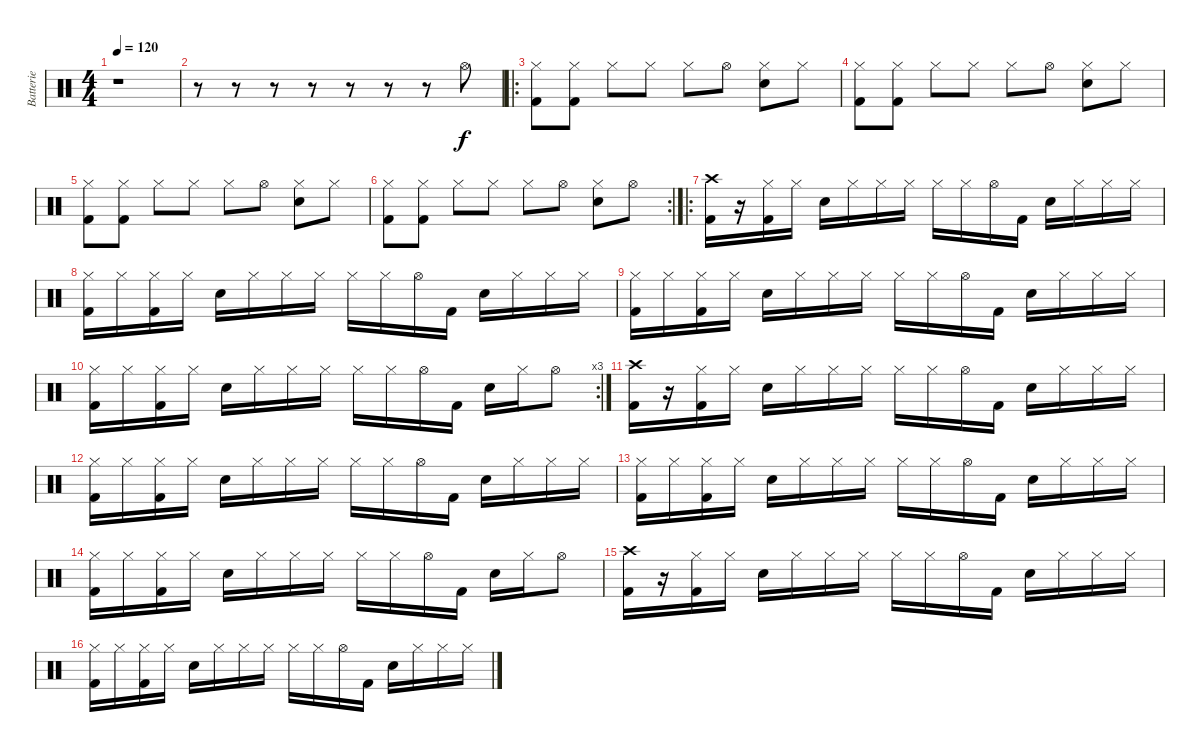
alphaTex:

\track ("Batterie" "Batterie") {instrument percussion}
\staff {score}
\articulation defaults
\ts (4 4)
\tempo 120
\clef neutral
\ks c
r.1{dy f} |
r.8 r.8 r.8 r.8 r.8 r.8 r.8 "Hi-Hat (open)".8 |
\ro
("Hi-Hat (closed)" "Kick (hit) 2").8 ("Hi-Hat (closed)" "Kick (hit) 2").8 "Hi-Hat (closed)".8 "Hi-Hat (closed)".8 "Hi-Hat (closed)".8 "Hi-Hat (open)".8 ("Hi-Hat (closed)" "Snare (hit) 2").8 "Hi-Hat (closed)".8 |
("Hi-Hat (closed)" "Kick (hit) 2").8 ("Hi-Hat (closed)" "Kick (hit) 2").8 "Hi-Hat (closed)".8 "Hi-Hat (closed)".8 "Hi-Hat (closed)".8 "Hi-Hat (open)".8 ("Hi-Hat (closed)" "Snare (hit) 2").8 "Hi-Hat (closed)".8 |
("Hi-Hat (closed)" "Kick (hit) 2").8 ("Hi-Hat (closed)" "Kick (hit) 2").8 "Hi-Hat (closed)".8 "Hi-Hat (closed)".8 "Hi-Hat (closed)".8 "Hi-Hat (open)".8 ("Hi-Hat (closed)" "Snare (hit) 2").8 "Hi-Hat (closed)".8 |
\rc 2
("Hi-Hat (closed)" "Kick (hit) 2").8 ("Hi-Hat (closed)" "Kick (hit) 2").8 "Hi-Hat (closed)".8 "Hi-Hat (closed)".8 "Hi-Hat (closed)".8 "Hi-Hat (open)".8 ("Hi-Hat (closed)" "Snare (hit) 2").8 "Hi-Hat (open)".8 |
\ro
("Crash high (hit)" "Kick (hit) 2").16 r.16 ("Hi-Hat (closed)" "Kick (hit) 2").16 "Hi-Hat (closed)".16 "Snare (hit) 2".16 "Hi-Hat (closed)".16 "Hi-Hat (closed)".16 "Hi-Hat (closed)".16 "Hi-Hat (closed)".16 "Hi-Hat (closed)".16 "Hi-Hat (open)".16 "Kick (hit) 2".16 "Snare (hit) 2".16 "Hi-Hat (closed)".16 "Hi-Hat (closed)".16 "Hi-Hat (closed)".16 |
("Hi-Hat (closed)" "Kick (hit) 2").16 "Hi-Hat (closed)".16 ("Hi-Hat (closed)" "Kick (hit) 2").16 "Hi-Hat (closed)".16 "Snare (hit) 2".16 "Hi-Hat (closed)".16 "Hi-Hat (closed)".16 "Hi-Hat (closed)".16 "Hi-Hat (closed)".16 "Hi-Hat (closed)".16 "Hi-Hat (open)".16 "Kick (hit) 2".16 "Snare (hit) 2".16 "Hi-Hat (closed)".16 "Hi-Hat (closed)".16 "Hi-Hat (closed)".16 |
("Hi-Hat (closed)" "Kick (hit) 2").16 "Hi-Hat (closed)".16 ("Hi-Hat (closed)" "Kick (hit) 2").16 "Hi-Hat (closed)".16 "Snare (hit) 2".16 "Hi-Hat (closed)".16 "Hi-Hat (closed)".16 "Hi-Hat (closed)".16 "Hi-Hat (closed)".16 "Hi-Hat (closed)".16 "Hi-Hat (open)".16 "Kick (hit) 2".16 "Snare (hit) 2".16 "Hi-Hat (closed)".16 "Hi-Hat (closed)".16 "Hi-Hat (closed)".16 |
\rc 3
("Hi-Hat (closed)" "Kick (hit) 2").16 "Hi-Hat (closed)".16 ("Hi-Hat (closed)" "Kick (hit) 2").16 "Hi-Hat (closed)".16 "Snare (hit) 2".16 "Hi-Hat (closed)".16 "Hi-Hat (closed)".16 "Hi-Hat (closed)".16 "Hi-Hat (closed)".16 "Hi-Hat (closed)".16 "Hi-Hat (open)".16 "Kick (hit) 2".16 "Snare (hit) 2".16 "Hi-Hat (closed)".16 "Hi-Hat (open)".8 |
("Crash high (hit)" "Kick (hit) 2").16 r.16 ("Hi-Hat (closed)" "Kick (hit) 2").16 "Hi-Hat (closed)".16 "Snare (hit) 2".16 "Hi-Hat (closed)".16 "Hi-Hat (closed)".16 "Hi-Hat (closed)".16 "Hi-Hat (closed)".16 "Hi-Hat (closed)".16 "Hi-Hat (open)".16 "Kick (hit) 2".16 "Snare (hit) 2".16 "Hi-Hat (closed)".16 "Hi-Hat (closed)".16 "Hi-Hat (closed)".16 |
("Hi-Hat (closed)" "Kick (hit) 2").16 "Hi-Hat (closed)".16 ("Hi-Hat (closed)" "Kick (hit) 2").16 "Hi-Hat (closed)".16 "Snare (hit) 2".16 "Hi-Hat (closed)".16 "Hi-Hat (closed)".16 "Hi-Hat (closed)".16 "Hi-Hat (closed)".16 "Hi-Hat (closed)".16 "Hi-Hat (open)".16 "Kick (hit) 2".16 "Snare (hit) 2".16 "Hi-Hat (closed)".16 "Hi-Hat (closed)".16 "Hi-Hat (closed)".16 |
("Hi-Hat (closed)" "Kick (hit) 2").16 "Hi-Hat (closed)".16 ("Hi-Hat (closed)" "Kick (hit) 2").16 "Hi-Hat (closed)".16 "Snare (hit) 2".16 "Hi-Hat (closed)".16 "Hi-Hat (closed)".16 "Hi-Hat (closed)".16 "Hi-Hat (closed)".16 "Hi-Hat (closed)".16 "Hi-Hat (open)".16 "Kick (hit) 2".16 "Snare (hit) 2".16 "Hi-Hat (closed)".16 "Hi-Hat (closed)".16 "Hi-Hat (closed)".16 |
("Hi-Hat (closed)" "Kick (hit) 2").16 "Hi-Hat (closed)".16 ("Hi-Hat (closed)" "Kick (hit) 2").16 "Hi-Hat (closed)".16 "Snare (hit) 2".16 "Hi-Hat (closed)".16 "Hi-Hat (closed)".16 "Hi-Hat (closed)".16 "Hi-Hat (closed)".16 "Hi-Hat (closed)".16 "Hi-Hat (open)".16 "Kick (hit) 2".16 "Snare (hit) 2".16 "Hi-Hat (closed)".16 "Hi-Hat (open)".8 |
("Crash high (hit)" "Kick (hit) 2").16 r.16 ("Hi-Hat (closed)" "Kick (hit) 2").16 "Hi-Hat (closed)".16 "Snare (hit) 2".16 "Hi-Hat (closed)".16 "Hi-Hat (closed)".16 "Hi-Hat (closed)".16 "Hi-Hat (closed)".16 "Hi-Hat (closed)".16 "Hi-Hat (open)".16 "Kick (hit) 2".16 "Snare (hit) 2".16 "Hi-Hat (closed)".16 "Hi-Hat (closed)".16 "Hi-Hat (closed)".16 |
("Hi-Hat (closed)" "Kick (hit) 2").16 "Hi-Hat (closed)".16 ("Hi-Hat (closed)" "Kick (hit) 2").16 "Hi-Hat (closed)".16 "Snare (hit) 2".16 "Hi-Hat (closed)".16 "Hi-Hat (closed)".16 "Hi-Hat (closed)".16 "Hi-Hat (closed)".16 "Hi-Hat (closed)".16 "Hi-Hat (open)".16 "Kick (hit) 2".16 "Snare (hit) 2".16 "Hi-Hat (closed)".16 "Hi-Hat (closed)".16 "Hi-Hat (closed)".16
